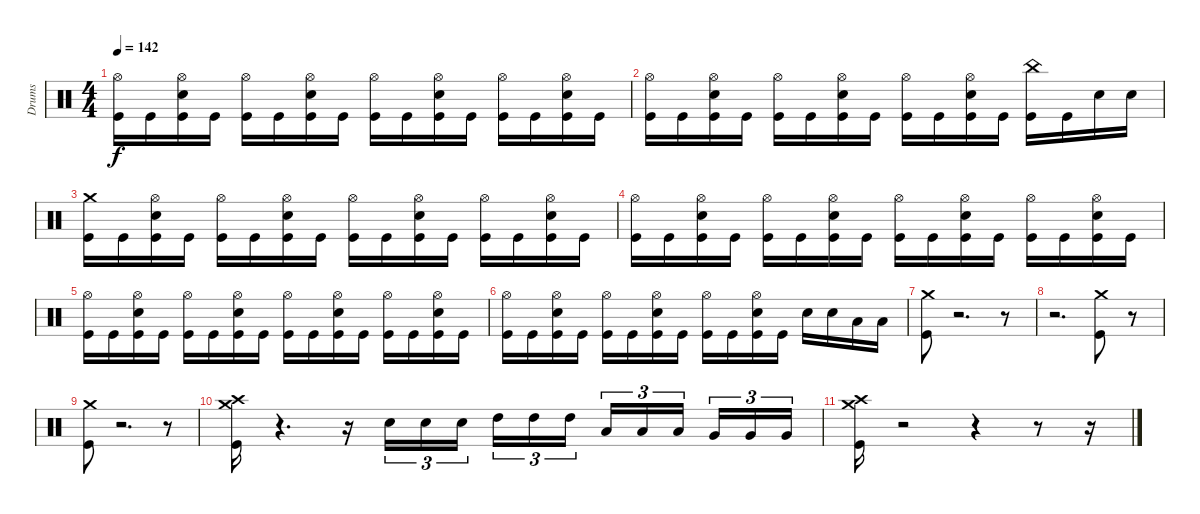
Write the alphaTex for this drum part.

\track ("Drums" "Drums") {instrument percussion}
\staff {score}
\articulation defaults
\ts (4 4)
\tempo 142
\clef neutral
\ks c
("Hi-Hat (open)" "Kick (hit)").16{dy f} "Kick (hit)".16 ("Electric Snare (hit)" "Hi-Hat (open)" "Kick (hit)").16 "Kick (hit)".16 ("Hi-Hat (open)" "Kick (hit)").16 "Kick (hit)".16 ("Electric Snare (hit)" "Hi-Hat (open)" "Kick (hit)").16 "Kick (hit)".16 ("Hi-Hat (open)" "Kick (hit)").16 "Kick (hit)".16 ("Electric Snare (hit)" "Hi-Hat (open)" "Kick (hit)").16 "Kick (hit)".16 ("Hi-Hat (open)" "Kick (hit)").16 "Kick (hit)".16 ("Electric Snare (hit)" "Hi-Hat (open)" "Kick (hit)").16 "Kick (hit)".16 |
("Hi-Hat (open)" "Kick (hit)").16 "Kick (hit)".16 ("Electric Snare (hit)" "Hi-Hat (open)" "Kick (hit)").16 "Kick (hit)".16 ("Hi-Hat (open)" "Kick (hit)").16 "Kick (hit)".16 ("Electric Snare (hit)" "Hi-Hat (open)" "Kick (hit)").16 "Kick (hit)".16 ("Hi-Hat (open)" "Kick (hit)").16 "Kick (hit)".16 ("Electric Snare (hit)" "Hi-Hat (open)" "Kick (hit)").16 "Kick (hit)".16 ("China (hit)" "Kick (hit)").16 "Kick (hit)".16 "Electric Snare (hit)".16 "Electric Snare (hit)".16 |
("Crash medium (hit)" "Kick (hit)").16 "Kick (hit)".16 ("Electric Snare (hit)" "Hi-Hat (open)" "Kick (hit)").16 "Kick (hit)".16 ("Hi-Hat (open)" "Kick (hit)").16 "Kick (hit)".16 ("Electric Snare (hit)" "Hi-Hat (open)" "Kick (hit)").16 "Kick (hit)".16 ("Hi-Hat (open)" "Kick (hit)").16 "Kick (hit)".16 ("Electric Snare (hit)" "Hi-Hat (open)" "Kick (hit)").16 "Kick (hit)".16 ("Hi-Hat (open)" "Kick (hit)").16 "Kick (hit)".16 ("Electric Snare (hit)" "Hi-Hat (open)" "Kick (hit)").16 "Kick (hit)".16 |
("Hi-Hat (open)" "Kick (hit)").16 "Kick (hit)".16 ("Electric Snare (hit)" "Hi-Hat (open)" "Kick (hit)").16 "Kick (hit)".16 ("Hi-Hat (open)" "Kick (hit)").16 "Kick (hit)".16 ("Electric Snare (hit)" "Hi-Hat (open)" "Kick (hit)").16 "Kick (hit)".16 ("Hi-Hat (open)" "Kick (hit)").16 "Kick (hit)".16 ("Electric Snare (hit)" "Hi-Hat (open)" "Kick (hit)").16 "Kick (hit)".16 ("Hi-Hat (open)" "Kick (hit)").16 "Kick (hit)".16 ("Electric Snare (hit)" "Hi-Hat (open)" "Kick (hit)").16 "Kick (hit)".16 |
("Hi-Hat (open)" "Kick (hit)").16 "Kick (hit)".16 ("Electric Snare (hit)" "Hi-Hat (open)" "Kick (hit)").16 "Kick (hit)".16 ("Hi-Hat (open)" "Kick (hit)").16 "Kick (hit)".16 ("Electric Snare (hit)" "Hi-Hat (open)" "Kick (hit)").16 "Kick (hit)".16 ("Hi-Hat (open)" "Kick (hit)").16 "Kick (hit)".16 ("Electric Snare (hit)" "Hi-Hat (open)" "Kick (hit)").16 "Kick (hit)".16 ("Hi-Hat (open)" "Kick (hit)").16 "Kick (hit)".16 ("Electric Snare (hit)" "Hi-Hat (open)" "Kick (hit)").16 "Kick (hit)".16 |
("Hi-Hat (open)" "Kick (hit)").16 "Kick (hit)".16 ("Electric Snare (hit)" "Hi-Hat (open)" "Kick (hit)").16 "Kick (hit)".16 ("Hi-Hat (open)" "Kick (hit)").16 "Kick (hit)".16 ("Electric Snare (hit)" "Hi-Hat (open)" "Kick (hit)").16 "Kick (hit)".16 ("Hi-Hat (open)" "Kick (hit)").16 "Kick (hit)".16 ("Electric Snare (hit)" "Hi-Hat (open)" "Kick (hit)").16 "Kick (hit)".16 "Electric Snare (hit)".16 "Electric Snare (hit)".16 "Low Tom (hit)".16 "Low Tom (hit)".16 |
("Crash medium (hit)" "Kick (hit)").8 r.2{d} r.8 |
r.2{d} ("Crash medium (hit)" "Kick (hit)").8 r.8 |
("Crash medium (hit)" "Kick (hit)").8 r.2{d} r.8 |
("Crash medium (hit)" "Kick (hit)" "Crash high (hit)").16 r.4{d} r.16 "Electric Snare (hit)".16{tu (3 2)} "Electric Snare (hit)".16{tu (3 2)} "Electric Snare (hit)".16{tu (3 2)} "High Tom (hit)".16{tu (3 2)} "High Tom (hit)".16{tu (3 2)} "High Tom (hit)".16{tu (3 2)} "Low Tom (hit)".16{tu (3 2)} "Low Tom (hit)".16{tu (3 2)} "Low Tom (hit)".16{tu (3 2)} "Very Low Tom (hit)".16{tu (3 2)} "Very Low Tom (hit)".16{tu (3 2)} "Very Low Tom (hit)".16{tu (3 2)} |
("Crash medium (hit)" "Crash high (hit)" "Kick (hit)").16 r.2 r.4 r.8 r.16
